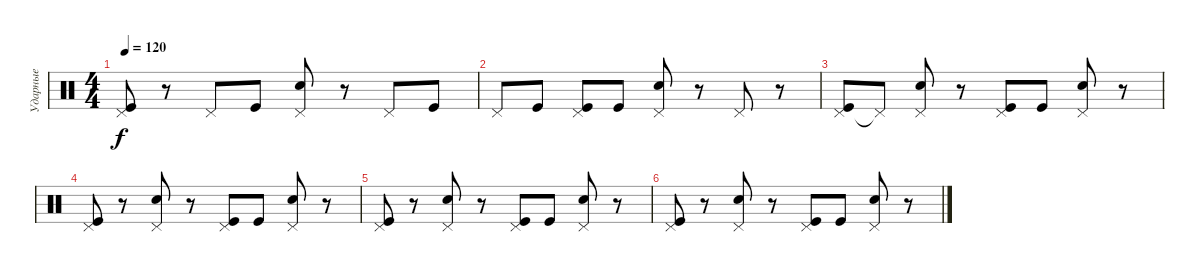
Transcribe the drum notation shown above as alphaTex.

\track ("Ударные" "Ударные") {instrument percussion}
\staff {score}
\articulation defaults
\ts (4 4)
\tempo 120
\clef neutral
\ks c
("Pedal Hi-Hat (hit)" "Kick (hit)").8{dy f} r.8 "Pedal Hi-Hat (hit)".8 "Kick (hit)".8 ("Pedal Hi-Hat (hit)" "Electric Snare (hit)").8 r.8 "Pedal Hi-Hat (hit)".8 "Kick (hit)".8 |
"Pedal Hi-Hat (hit)".8 "Kick (hit)".8 ("Pedal Hi-Hat (hit)" "Kick (hit)").8 "Kick (hit)".8 ("Pedal Hi-Hat (hit)" "Electric Snare (hit)").8 r.8 "Pedal Hi-Hat (hit)".8 r.8 |
("Pedal Hi-Hat (hit)" "Kick (hit)").8 "Pedal Hi-Hat (hit)"{t}.8 ("Pedal Hi-Hat (hit)" "Electric Snare (hit)").8 r.8 ("Pedal Hi-Hat (hit)" "Kick (hit)").8 "Kick (hit)".8 ("Pedal Hi-Hat (hit)" "Electric Snare (hit)").8 r.8 |
("Pedal Hi-Hat (hit)" "Kick (hit)").8 r.8 ("Pedal Hi-Hat (hit)" "Electric Snare (hit)").8 r.8 ("Pedal Hi-Hat (hit)" "Kick (hit)").8 "Kick (hit)".8 ("Pedal Hi-Hat (hit)" "Electric Snare (hit)").8 r.8 |
("Pedal Hi-Hat (hit)" "Kick (hit)").8 r.8 ("Pedal Hi-Hat (hit)" "Electric Snare (hit)").8 r.8 ("Pedal Hi-Hat (hit)" "Kick (hit)").8 "Kick (hit)".8 ("Pedal Hi-Hat (hit)" "Electric Snare (hit)").8 r.8 |
("Pedal Hi-Hat (hit)" "Kick (hit)").8 r.8 ("Pedal Hi-Hat (hit)" "Electric Snare (hit)").8 r.8 ("Pedal Hi-Hat (hit)" "Kick (hit)").8 "Kick (hit)".8 ("Pedal Hi-Hat (hit)" "Electric Snare (hit)").8 r.8
